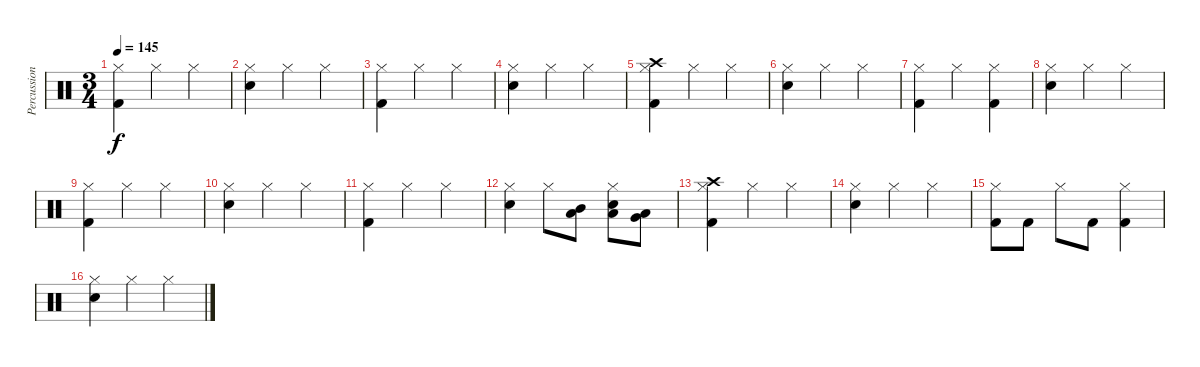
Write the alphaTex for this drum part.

\track ("Percussion" "Percussion") {instrument percussion}
\staff {score}
\articulation defaults
\ts (3 4)
\tempo 145
\clef neutral
\ks c
("Hi-Hat (closed)" "Kick (hit) 2").4{dy f} "Hi-Hat (closed)".4 "Hi-Hat (closed)".4 |
("Hi-Hat (closed)" "Electric Snare (hit)").4 "Hi-Hat (closed)".4 "Hi-Hat (closed)".4 |
("Hi-Hat (closed)" "Kick (hit) 2").4 "Hi-Hat (closed)".4 "Hi-Hat (closed)".4 |
("Hi-Hat (closed)" "Electric Snare (hit)").4 "Hi-Hat (closed)".4 "Hi-Hat (closed)".4 |
("Hi-Hat (closed)" "Kick (hit) 2" "Crash high (hit)").4 "Hi-Hat (closed)".4 "Hi-Hat (closed)".4 |
("Hi-Hat (closed)" "Electric Snare (hit)").4 "Hi-Hat (closed)".4 "Hi-Hat (closed)".4 |
("Hi-Hat (closed)" "Kick (hit) 2").4 "Hi-Hat (closed)".4 ("Hi-Hat (closed)" "Kick (hit) 2").4 |
("Hi-Hat (closed)" "Electric Snare (hit)").4 "Hi-Hat (closed)".4 "Hi-Hat (closed)".4 |
("Hi-Hat (closed)" "Kick (hit) 2").4 "Hi-Hat (closed)".4 "Hi-Hat (closed)".4 |
("Hi-Hat (closed)" "Electric Snare (hit)").4 "Hi-Hat (closed)".4 "Hi-Hat (closed)".4 |
("Hi-Hat (closed)" "Kick (hit) 2").4 "Hi-Hat (closed)".4 "Hi-Hat (closed)".4 |
("Hi-Hat (closed)" "Electric Snare (hit)").4 "Hi-Hat (closed)".8 ("Mid Tom (hit)" "Low Tom (hit)").8 ("Hi-Hat (closed)" "Low Tom (hit)" "Electric Snare (hit)").8 ("Very Low Tom (hit)" "Low Floor Tom (hit)").8 |
("Hi-Hat (closed)" "Kick (hit) 2" "Crash high (hit)").4 "Hi-Hat (closed)".4 "Hi-Hat (closed)".4 |
("Hi-Hat (closed)" "Electric Snare (hit)").4 "Hi-Hat (closed)".4 "Hi-Hat (closed)".4 |
("Hi-Hat (closed)" "Kick (hit) 2").8 "Kick (hit) 2".8 "Hi-Hat (closed)".8 "Kick (hit) 2".8 ("Hi-Hat (closed)" "Kick (hit) 2").4 |
("Hi-Hat (closed)" "Electric Snare (hit)").4 "Hi-Hat (closed)".4 "Hi-Hat (closed)".4
